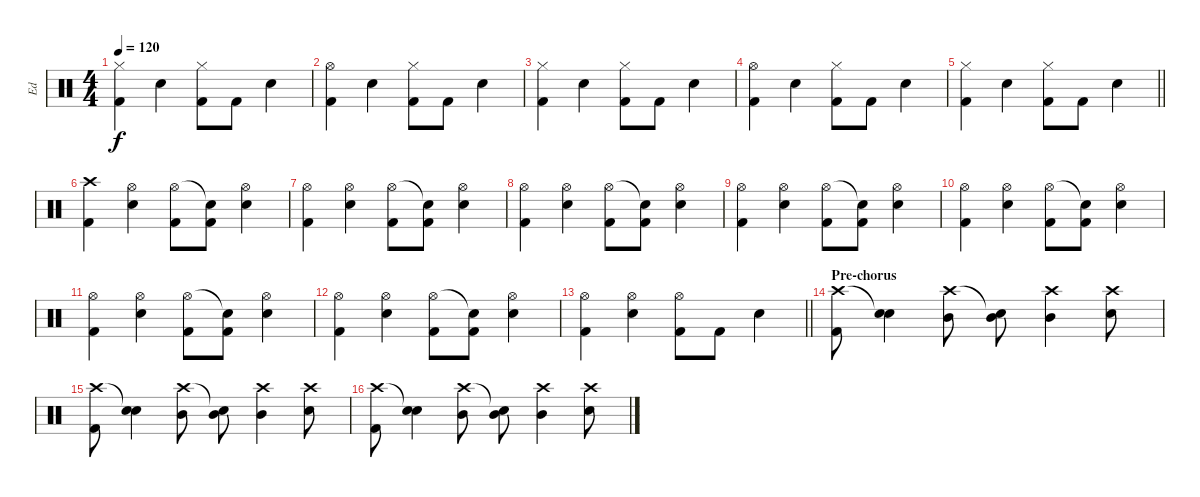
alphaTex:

\track ("Ed" "Ed") {instrument percussion}
\staff {score}
\articulation defaults
\ts (4 4)
\tempo 120
\clef neutral
\ks c
("Hi-Hat (closed)" "Kick (hit) 2").4{dy f} "Snare (hit) 2".4 ("Hi-Hat (closed)" "Kick (hit) 2").8 "Kick (hit) 2".8 "Snare (hit) 2".4 |
("Hi-Hat (open)" "Kick (hit) 2").4 "Snare (hit) 2".4 ("Hi-Hat (closed)" "Kick (hit) 2").8 "Kick (hit) 2".8 "Snare (hit) 2".4 |
("Hi-Hat (closed)" "Kick (hit) 2").4 "Snare (hit) 2".4 ("Hi-Hat (closed)" "Kick (hit) 2").8 "Kick (hit) 2".8 "Snare (hit) 2".4 |
("Hi-Hat (open)" "Kick (hit) 2").4 "Snare (hit) 2".4 ("Hi-Hat (closed)" "Kick (hit) 2").8 "Kick (hit) 2".8 "Snare (hit) 2".4 |
\barLineRight lightlight
("Hi-Hat (closed)" "Kick (hit) 2").4 "Snare (hit) 2".4 ("Hi-Hat (closed)" "Kick (hit) 2").8 "Kick (hit) 2".8 "Snare (hit) 2".4 |
\section ("" "")
("Crash high (hit)" "Kick (hit) 2").4 ("Hi-Hat (open)" "Snare (hit) 2").4 ("Hi-Hat (open)" "Kick (hit) 2").8 ("Snare (hit)"{t} "Kick (hit) 2").8 ("Hi-Hat (open)" "Snare (hit) 2").4 |
("Hi-Hat (open)" "Kick (hit) 2").4 ("Hi-Hat (open)" "Snare (hit) 2").4 ("Hi-Hat (open)" "Kick (hit) 2").8 ("Snare (hit)"{t} "Kick (hit) 2").8 ("Hi-Hat (open)" "Snare (hit) 2").4 |
("Hi-Hat (open)" "Kick (hit) 2").4 ("Hi-Hat (open)" "Snare (hit) 2").4 ("Hi-Hat (open)" "Kick (hit) 2").8 ("Snare (hit)"{t} "Kick (hit) 2").8 ("Hi-Hat (open)" "Snare (hit) 2").4 |
("Hi-Hat (open)" "Kick (hit) 2").4 ("Hi-Hat (open)" "Snare (hit) 2").4 ("Hi-Hat (open)" "Kick (hit) 2").8 ("Snare (hit)"{t} "Kick (hit) 2").8 ("Hi-Hat (open)" "Snare (hit) 2").4 |
("Hi-Hat (open)" "Kick (hit) 2").4 ("Hi-Hat (open)" "Snare (hit) 2").4 ("Hi-Hat (open)" "Kick (hit) 2").8 ("Snare (hit)"{t} "Kick (hit) 2").8 ("Hi-Hat (open)" "Snare (hit) 2").4 |
("Hi-Hat (open)" "Kick (hit) 2").4 ("Hi-Hat (open)" "Snare (hit) 2").4 ("Hi-Hat (open)" "Kick (hit) 2").8 ("Snare (hit)"{t} "Kick (hit) 2").8 ("Hi-Hat (open)" "Snare (hit) 2").4 |
("Hi-Hat (open)" "Kick (hit) 2").4 ("Hi-Hat (open)" "Snare (hit) 2").4 ("Hi-Hat (open)" "Kick (hit) 2").8 ("Snare (hit)"{t} "Kick (hit) 2").8 ("Hi-Hat (open)" "Snare (hit) 2").4 |
\barLineRight lightlight
("Hi-Hat (open)" "Kick (hit) 2").4 ("Hi-Hat (open)" "Snare (hit) 2").4 ("Hi-Hat (open)" "Kick (hit) 2").8 "Kick (hit) 2".8 "Snare (hit) 2".4 |
\section ("" "Pre-chorus")
("Crash high (hit)" "Kick (hit) 2").8 ("Snare (hit)"{t} "Snare (hit) 2").4 ("Crash high (hit)" "Mid Tom (hit)").8 ("Snare (hit)"{t} "Mid Tom (hit)").8 ("Crash high (hit)" "Mid Tom (hit)").4 ("Crash high (hit)" "Snare (hit) 2").8 |
("Crash high (hit)" "Kick (hit) 2").8 ("Snare (hit)"{t} "Snare (hit) 2").4 ("Crash high (hit)" "Mid Tom (hit)").8 ("Snare (hit)"{t} "Mid Tom (hit)").8 ("Crash high (hit)" "Mid Tom (hit)").4 ("Crash high (hit)" "Snare (hit) 2").8 |
("Crash high (hit)" "Kick (hit) 2").8 ("Snare (hit)"{t} "Snare (hit) 2").4 ("Crash high (hit)" "Mid Tom (hit)").8 ("Snare (hit)"{t} "Mid Tom (hit)").8 ("Crash high (hit)" "Mid Tom (hit)").4 ("Crash high (hit)" "Snare (hit) 2").8
